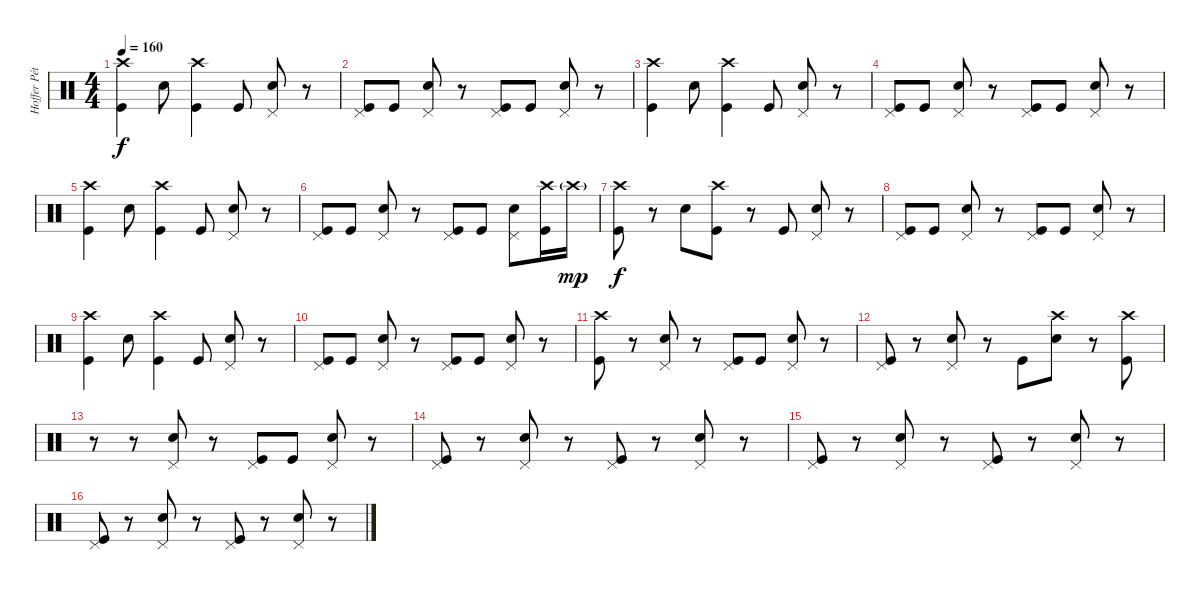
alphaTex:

\track ("Hoffer Péter" "Hoffer Pét") {instrument percussion}
\staff {score}
\articulation defaults
\ts (4 4)
\tempo 160
\clef neutral
\ks c
("Crash high (hit)" "Kick (hit)").4{dy f} "Electric Snare (hit)".8 ("Crash high (hit)" "Kick (hit)").4 "Kick (hit)".8 ("Pedal Hi-Hat (hit)" "Electric Snare (hit)").8 r.8 |
("Pedal Hi-Hat (hit)" "Kick (hit)").8 "Kick (hit)".8 ("Pedal Hi-Hat (hit)" "Electric Snare (hit)").8 r.8 ("Pedal Hi-Hat (hit)" "Kick (hit)").8 "Kick (hit)".8 ("Pedal Hi-Hat (hit)" "Electric Snare (hit)").8 r.8 |
("Crash high (hit)" "Kick (hit)").4 "Electric Snare (hit)".8 ("Crash high (hit)" "Kick (hit)").4 "Kick (hit)".8 ("Pedal Hi-Hat (hit)" "Electric Snare (hit)").8 r.8 |
("Pedal Hi-Hat (hit)" "Kick (hit)").8 "Kick (hit)".8 ("Pedal Hi-Hat (hit)" "Electric Snare (hit)").8 r.8 ("Pedal Hi-Hat (hit)" "Kick (hit)").8 "Kick (hit)".8 ("Pedal Hi-Hat (hit)" "Electric Snare (hit)").8 r.8 |
("Crash high (hit)" "Kick (hit)").4 "Electric Snare (hit)".8 ("Crash high (hit)" "Kick (hit)").4 "Kick (hit)".8 ("Pedal Hi-Hat (hit)" "Electric Snare (hit)").8 r.8 |
("Pedal Hi-Hat (hit)" "Kick (hit)").8 "Kick (hit)".8 ("Pedal Hi-Hat (hit)" "Electric Snare (hit)").8 r.8 ("Pedal Hi-Hat (hit)" "Kick (hit)").8 "Kick (hit)".8 ("Pedal Hi-Hat (hit)" "Electric Snare (hit)").8 ("Crash high (hit)" "Kick (hit)").16 "Crash high (hit)"{g}.16{dy mp} |
("Crash high (hit)" "Kick (hit)").8{dy f} r.8 "Electric Snare (hit)".8 ("Crash high (hit)" "Kick (hit)").8 r.8 "Kick (hit)".8 ("Pedal Hi-Hat (hit)" "Electric Snare (hit)").8 r.8 |
("Pedal Hi-Hat (hit)" "Kick (hit)").8 "Kick (hit)".8 ("Pedal Hi-Hat (hit)" "Electric Snare (hit)").8 r.8 ("Pedal Hi-Hat (hit)" "Kick (hit)").8 "Kick (hit)".8 ("Pedal Hi-Hat (hit)" "Electric Snare (hit)").8 r.8 |
("Crash high (hit)" "Kick (hit)").4 "Electric Snare (hit)".8 ("Crash high (hit)" "Kick (hit)").4 "Kick (hit)".8 ("Pedal Hi-Hat (hit)" "Electric Snare (hit)").8 r.8 |
("Pedal Hi-Hat (hit)" "Kick (hit)").8 "Kick (hit)".8 ("Pedal Hi-Hat (hit)" "Electric Snare (hit)").8 r.8 ("Pedal Hi-Hat (hit)" "Kick (hit)").8 "Kick (hit)".8 ("Pedal Hi-Hat (hit)" "Electric Snare (hit)").8 r.8 |
("Crash high (hit)" "Kick (hit)").8 r.8 ("Pedal Hi-Hat (hit)" "Electric Snare (hit)").8 r.8 ("Pedal Hi-Hat (hit)" "Kick (hit)").8 "Kick (hit)".8 ("Pedal Hi-Hat (hit)" "Electric Snare (hit)").8 r.8 |
("Pedal Hi-Hat (hit)" "Kick (hit)").8 r.8 ("Pedal Hi-Hat (hit)" "Electric Snare (hit)").8 r.8 "Kick (hit)".8 ("Crash high (hit)" "Electric Snare (hit)").8 r.8 ("Crash high (hit)" "Kick (hit)").8 |
r.8 r.8 ("Pedal Hi-Hat (hit)" "Electric Snare (hit)").8 r.8 ("Pedal Hi-Hat (hit)" "Kick (hit)").8 "Kick (hit)".8 ("Pedal Hi-Hat (hit)" "Electric Snare (hit)").8 r.8 |
("Pedal Hi-Hat (hit)" "Kick (hit)").8 r.8 ("Pedal Hi-Hat (hit)" "Electric Snare (hit)").8 r.8 ("Pedal Hi-Hat (hit)" "Kick (hit)").8 r.8 ("Pedal Hi-Hat (hit)" "Electric Snare (hit)").8 r.8 |
("Pedal Hi-Hat (hit)" "Kick (hit)").8 r.8 ("Pedal Hi-Hat (hit)" "Electric Snare (hit)").8 r.8 ("Pedal Hi-Hat (hit)" "Kick (hit)").8 r.8 ("Pedal Hi-Hat (hit)" "Electric Snare (hit)").8 r.8 |
("Pedal Hi-Hat (hit)" "Kick (hit)").8 r.8 ("Pedal Hi-Hat (hit)" "Electric Snare (hit)").8 r.8 ("Pedal Hi-Hat (hit)" "Kick (hit)").8 r.8 ("Pedal Hi-Hat (hit)" "Electric Snare (hit)").8 r.8
